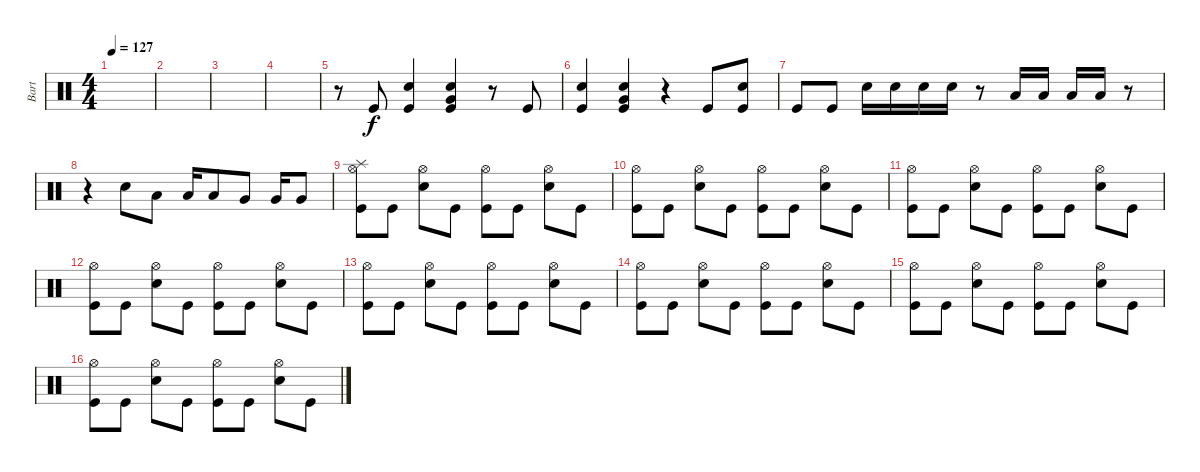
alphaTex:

\track ("Bart" "Bart") {instrument percussion}
\staff {score}
\articulation defaults
\ts (4 4)
\tempo 127
\clef neutral
\ks c
|
|
|
|
r.8 "Kick (hit)".8 ("Kick (hit)" "Electric Snare (hit)").4 ("Kick (hit)" "Very Low Tom (hit)" "Electric Snare (hit)").4 r.8 "Kick (hit)".8 |
("Kick (hit)" "Electric Snare (hit)").4 ("Kick (hit)" "Very Low Tom (hit)" "Electric Snare (hit)").4 r.4 "Kick (hit)".8 ("Kick (hit)" "Electric Snare (hit)").8 |
"Kick (hit)".8 "Kick (hit)".8 "Electric Snare (hit)".16 "Electric Snare (hit)".16 "Electric Snare (hit)".16 "Electric Snare (hit)".16 r.8 "Low Tom (hit)".16 "Low Tom (hit)".16 "Low Tom (hit)".16 "Low Tom (hit)".16 r.8 |
r.4 "Electric Snare (hit)".8 "Low Tom (hit)".8 "Low Tom (hit)".16 "Low Tom (hit)".8 "Very Low Tom (hit)".8 "Very Low Tom (hit)".16 "Very Low Tom (hit)".8 |
("Kick (hit)" "Hi-Hat (open)" "Splash (hit)").8 "Kick (hit)".8 ("Electric Snare (hit)" "Hi-Hat (open)").8 "Kick (hit)".8 ("Kick (hit)" "Hi-Hat (open)").8 "Kick (hit)".8 ("Electric Snare (hit)" "Hi-Hat (open)").8 "Kick (hit)".8 |
("Kick (hit)" "Hi-Hat (open)").8 "Kick (hit)".8 ("Electric Snare (hit)" "Hi-Hat (open)").8 "Kick (hit)".8 ("Kick (hit)" "Hi-Hat (open)").8 "Kick (hit)".8 ("Electric Snare (hit)" "Hi-Hat (open)").8 "Kick (hit)".8 |
("Kick (hit)" "Hi-Hat (open)").8 "Kick (hit)".8 ("Electric Snare (hit)" "Hi-Hat (open)").8 "Kick (hit)".8 ("Kick (hit)" "Hi-Hat (open)").8 "Kick (hit)".8 ("Electric Snare (hit)" "Hi-Hat (open)").8 "Kick (hit)".8 |
("Kick (hit)" "Hi-Hat (open)").8 "Kick (hit)".8 ("Electric Snare (hit)" "Hi-Hat (open)").8 "Kick (hit)".8 ("Kick (hit)" "Hi-Hat (open)").8 "Kick (hit)".8 ("Electric Snare (hit)" "Hi-Hat (open)").8 "Kick (hit)".8 |
("Kick (hit)" "Hi-Hat (open)").8 "Kick (hit)".8 ("Electric Snare (hit)" "Hi-Hat (open)").8 "Kick (hit)".8 ("Kick (hit)" "Hi-Hat (open)").8 "Kick (hit)".8 ("Electric Snare (hit)" "Hi-Hat (open)").8 "Kick (hit)".8 |
("Kick (hit)" "Hi-Hat (open)").8 "Kick (hit)".8 ("Electric Snare (hit)" "Hi-Hat (open)").8 "Kick (hit)".8 ("Kick (hit)" "Hi-Hat (open)").8 "Kick (hit)".8 ("Electric Snare (hit)" "Hi-Hat (open)").8 "Kick (hit)".8 |
("Kick (hit)" "Hi-Hat (open)").8 "Kick (hit)".8 ("Electric Snare (hit)" "Hi-Hat (open)").8 "Kick (hit)".8 ("Kick (hit)" "Hi-Hat (open)").8 "Kick (hit)".8 ("Electric Snare (hit)" "Hi-Hat (open)").8 "Kick (hit)".8 |
("Kick (hit)" "Hi-Hat (open)").8 "Kick (hit)".8 ("Electric Snare (hit)" "Hi-Hat (open)").8 "Kick (hit)".8 ("Kick (hit)" "Hi-Hat (open)").8 "Kick (hit)".8 ("Electric Snare (hit)" "Hi-Hat (open)").8 "Kick (hit)".8
